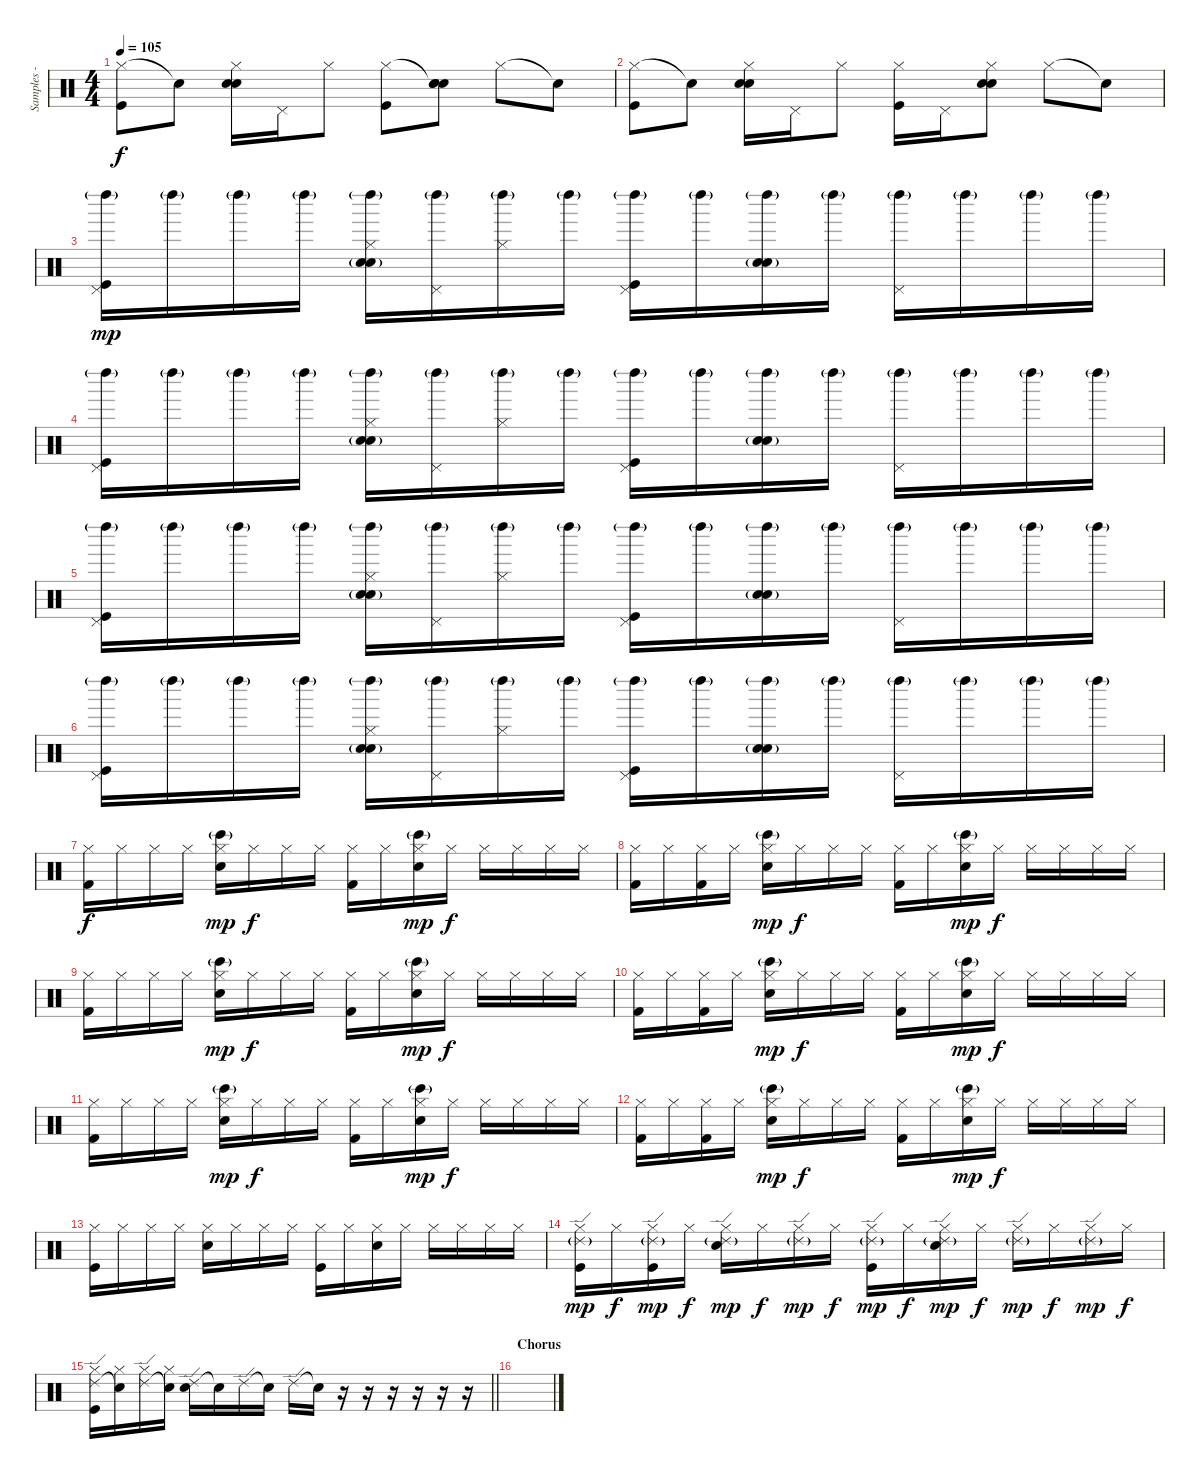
\track ("Samples - Joe Hahn" "Samples - ") {instrument percussion}
\staff {score}
\articulation defaults
\ts (4 4)
\tempo 105
\clef neutral
\ks c
("Hi-Hat (closed)" "Kick (hit)").8{dy f} "Snare (hit)"{t}.8 ("Hi-Hat (closed)" "Electric Snare (hit)" "Hand Clap (hit)").16 "Pedal Hi-Hat (hit)".16 "Hi-Hat (closed)".8 ("Hi-Hat (closed)" "Kick (hit)").8 ("Snare (hit)"{t} "Electric Snare (hit)" "Hand Clap (hit)").8 "Hi-Hat (closed)".8 "Snare (hit)"{t}.8 |
("Hi-Hat (closed)" "Kick (hit)").8 "Snare (hit)"{t}.8 ("Hi-Hat (closed)" "Electric Snare (hit)" "Hand Clap (hit)").16 "Pedal Hi-Hat (hit)".16 "Hi-Hat (closed)".8 ("Hi-Hat (closed)" "Kick (hit)").16 "Pedal Hi-Hat (hit)".16 ("Hi-Hat (closed)" "Electric Snare (hit)" "Hand Clap (hit)").8 "Hi-Hat (closed)".8 "Snare (hit)"{t}.8 |
("Left Maraca (hit)"{g} "Pedal Hi-Hat (hit)" "Kick (hit)").16{dy mp} "Left Maraca (hit)"{g}.16 "Left Maraca (hit)"{g}.16 "Left Maraca (hit)"{g}.16 ("Left Maraca (hit)"{g} "Hi-Hat (closed)" "Electric Snare (hit)" "Hand Clap (hit)"{g}).16 ("Left Maraca (hit)"{g} "Pedal Hi-Hat (hit)").16 ("Left Maraca (hit)"{g} "Hi-Hat (closed)").16 "Left Maraca (hit)"{g}.16 ("Left Maraca (hit)"{g} "Pedal Hi-Hat (hit)" "Kick (hit)").16 "Left Maraca (hit)"{g}.16 ("Left Maraca (hit)"{g} "Electric Snare (hit)" "Hand Clap (hit)"{g}).16 "Left Maraca (hit)"{g}.16 ("Left Maraca (hit)"{g} "Pedal Hi-Hat (hit)").16 "Left Maraca (hit)"{g}.16 "Left Maraca (hit)"{g}.16 "Left Maraca (hit)"{g}.16 |
("Left Maraca (hit)"{g} "Pedal Hi-Hat (hit)" "Kick (hit)").16 "Left Maraca (hit)"{g}.16 "Left Maraca (hit)"{g}.16 "Left Maraca (hit)"{g}.16 ("Left Maraca (hit)"{g} "Hi-Hat (closed)" "Electric Snare (hit)" "Hand Clap (hit)"{g}).16 ("Left Maraca (hit)"{g} "Pedal Hi-Hat (hit)").16 ("Left Maraca (hit)"{g} "Hi-Hat (closed)").16 "Left Maraca (hit)"{g}.16 ("Left Maraca (hit)"{g} "Pedal Hi-Hat (hit)" "Kick (hit)").16 "Left Maraca (hit)"{g}.16 ("Left Maraca (hit)"{g} "Electric Snare (hit)" "Hand Clap (hit)"{g}).16 "Left Maraca (hit)"{g}.16 ("Left Maraca (hit)"{g} "Pedal Hi-Hat (hit)").16 "Left Maraca (hit)"{g}.16 "Left Maraca (hit)"{g}.16 "Left Maraca (hit)"{g}.16 |
("Left Maraca (hit)"{g} "Pedal Hi-Hat (hit)" "Kick (hit)").16 "Left Maraca (hit)"{g}.16 "Left Maraca (hit)"{g}.16 "Left Maraca (hit)"{g}.16 ("Left Maraca (hit)"{g} "Hi-Hat (closed)" "Electric Snare (hit)" "Hand Clap (hit)"{g}).16 ("Left Maraca (hit)"{g} "Pedal Hi-Hat (hit)").16 ("Left Maraca (hit)"{g} "Hi-Hat (closed)").16 "Left Maraca (hit)"{g}.16 ("Left Maraca (hit)"{g} "Pedal Hi-Hat (hit)" "Kick (hit)").16 "Left Maraca (hit)"{g}.16 ("Left Maraca (hit)"{g} "Electric Snare (hit)" "Hand Clap (hit)"{g}).16 "Left Maraca (hit)"{g}.16 ("Left Maraca (hit)"{g} "Pedal Hi-Hat (hit)").16 "Left Maraca (hit)"{g}.16 "Left Maraca (hit)"{g}.16 "Left Maraca (hit)"{g}.16 |
("Left Maraca (hit)"{g} "Pedal Hi-Hat (hit)" "Kick (hit)").16 "Left Maraca (hit)"{g}.16 "Left Maraca (hit)"{g}.16 "Left Maraca (hit)"{g}.16 ("Left Maraca (hit)"{g} "Hi-Hat (closed)" "Electric Snare (hit)" "Hand Clap (hit)"{g}).16 ("Left Maraca (hit)"{g} "Pedal Hi-Hat (hit)").16 ("Left Maraca (hit)"{g} "Hi-Hat (closed)").16 "Left Maraca (hit)"{g}.16 ("Left Maraca (hit)"{g} "Pedal Hi-Hat (hit)" "Kick (hit)").16 "Left Maraca (hit)"{g}.16 ("Left Maraca (hit)"{g} "Electric Snare (hit)" "Hand Clap (hit)"{g}).16 "Left Maraca (hit)"{g}.16 ("Left Maraca (hit)"{g} "Pedal Hi-Hat (hit)").16 "Left Maraca (hit)"{g}.16 "Left Maraca (hit)"{g}.16 "Left Maraca (hit)"{g}.16 |
("Hi-Hat (closed)" "Kick (hit) 2").16{dy f} "Hi-Hat (closed)".16 "Hi-Hat (closed)".16 "Hi-Hat (closed)".16 ("Hi-Hat (closed)" "Bongo High (hit)"{g} "Electric Snare (hit)").16{dy mp} "Hi-Hat (closed)".16{dy f} "Hi-Hat (closed)".16 "Hi-Hat (closed)".16 ("Hi-Hat (closed)" "Kick (hit) 2").16 "Hi-Hat (closed)".16 ("Hi-Hat (closed)" "Bongo High (hit)"{g} "Electric Snare (hit)").16{dy mp} "Hi-Hat (closed)".16{dy f} "Hi-Hat (closed)".16 "Hi-Hat (closed)".16 "Hi-Hat (closed)".16 "Hi-Hat (closed)".16 |
("Hi-Hat (closed)" "Kick (hit) 2").16 "Hi-Hat (closed)".16 ("Hi-Hat (closed)" "Kick (hit) 2").16 "Hi-Hat (closed)".16 ("Hi-Hat (closed)" "Bongo High (hit)"{g} "Electric Snare (hit)").16{dy mp} "Hi-Hat (closed)".16{dy f} "Hi-Hat (closed)".16 "Hi-Hat (closed)".16 ("Hi-Hat (closed)" "Kick (hit) 2").16 "Hi-Hat (closed)".16 ("Hi-Hat (closed)" "Bongo High (hit)"{g} "Electric Snare (hit)").16{dy mp} "Hi-Hat (closed)".16{dy f} "Hi-Hat (closed)".16 "Hi-Hat (closed)".16 "Hi-Hat (closed)".16 "Hi-Hat (closed)".16 |
("Hi-Hat (closed)" "Kick (hit) 2").16 "Hi-Hat (closed)".16 "Hi-Hat (closed)".16 "Hi-Hat (closed)".16 ("Hi-Hat (closed)" "Bongo High (hit)"{g} "Electric Snare (hit)").16{dy mp} "Hi-Hat (closed)".16{dy f} "Hi-Hat (closed)".16 "Hi-Hat (closed)".16 ("Hi-Hat (closed)" "Kick (hit) 2").16 "Hi-Hat (closed)".16 ("Hi-Hat (closed)" "Bongo High (hit)"{g} "Electric Snare (hit)").16{dy mp} "Hi-Hat (closed)".16{dy f} "Hi-Hat (closed)".16 "Hi-Hat (closed)".16 "Hi-Hat (closed)".16 "Hi-Hat (closed)".16 |
("Hi-Hat (closed)" "Kick (hit) 2").16 "Hi-Hat (closed)".16 ("Hi-Hat (closed)" "Kick (hit) 2").16 "Hi-Hat (closed)".16 ("Hi-Hat (closed)" "Bongo High (hit)"{g} "Electric Snare (hit)").16{dy mp} "Hi-Hat (closed)".16{dy f} "Hi-Hat (closed)".16 "Hi-Hat (closed)".16 ("Hi-Hat (closed)" "Kick (hit) 2").16 "Hi-Hat (closed)".16 ("Hi-Hat (closed)" "Bongo High (hit)"{g} "Electric Snare (hit)").16{dy mp} "Hi-Hat (closed)".16{dy f} "Hi-Hat (closed)".16 "Hi-Hat (closed)".16 "Hi-Hat (closed)".16 "Hi-Hat (closed)".16 |
("Hi-Hat (closed)" "Kick (hit) 2").16 "Hi-Hat (closed)".16 "Hi-Hat (closed)".16 "Hi-Hat (closed)".16 ("Hi-Hat (closed)" "Bongo High (hit)"{g} "Electric Snare (hit)").16{dy mp} "Hi-Hat (closed)".16{dy f} "Hi-Hat (closed)".16 "Hi-Hat (closed)".16 ("Hi-Hat (closed)" "Kick (hit) 2").16 "Hi-Hat (closed)".16 ("Hi-Hat (closed)" "Bongo High (hit)"{g} "Electric Snare (hit)").16{dy mp} "Hi-Hat (closed)".16{dy f} "Hi-Hat (closed)".16 "Hi-Hat (closed)".16 "Hi-Hat (closed)".16 "Hi-Hat (closed)".16 |
("Hi-Hat (closed)" "Kick (hit) 2").16 "Hi-Hat (closed)".16 ("Hi-Hat (closed)" "Kick (hit) 2").16 "Hi-Hat (closed)".16 ("Hi-Hat (closed)" "Bongo High (hit)"{g} "Electric Snare (hit)").16{dy mp} "Hi-Hat (closed)".16{dy f} "Hi-Hat (closed)".16 "Hi-Hat (closed)".16 ("Hi-Hat (closed)" "Kick (hit) 2").16 "Hi-Hat (closed)".16 ("Hi-Hat (closed)" "Bongo High (hit)"{g} "Electric Snare (hit)").16{dy mp} "Hi-Hat (closed)".16{dy f} "Hi-Hat (closed)".16 "Hi-Hat (closed)".16 "Hi-Hat (closed)".16 "Hi-Hat (closed)".16 |
("Hi-Hat (closed)" "Kick (hit)").16 "Hi-Hat (closed)".16 "Hi-Hat (closed)".16 "Hi-Hat (closed)".16 ("Hi-Hat (closed)" "Electric Snare (hit)").16 "Hi-Hat (closed)".16 "Hi-Hat (closed)".16 "Hi-Hat (closed)".16 ("Hi-Hat (closed)" "Kick (hit)").16 "Hi-Hat (closed)".16 ("Hi-Hat (closed)" "Electric Snare (hit)").16 "Hi-Hat (closed)".16 "Hi-Hat (closed)".16 "Hi-Hat (closed)".16 "Hi-Hat (closed)".16 "Hi-Hat (closed)".16 |
("Hi-Hat (closed)" "Ride (edge) 2"{g} "Kick (hit)").16{dy mp} "Hi-Hat (closed)".16{dy f} ("Hi-Hat (closed)" "Ride (edge) 2"{g} "Kick (hit)").16{dy mp} "Hi-Hat (closed)".16{dy f} ("Hi-Hat (closed)" "Ride (edge) 2"{g} "Electric Snare (hit)").16{dy mp} "Hi-Hat (closed)".16{dy f} ("Hi-Hat (closed)" "Ride (edge) 2"{g}).16{dy mp} "Hi-Hat (closed)".16{dy f} ("Hi-Hat (closed)" "Ride (edge) 2"{g} "Kick (hit)").16{dy mp} "Hi-Hat (closed)".16{dy f} ("Hi-Hat (closed)" "Ride (edge) 2"{g} "Electric Snare (hit)").16{dy mp} "Hi-Hat (closed)".16{dy f} ("Hi-Hat (closed)" "Ride (edge) 2"{g}).16{dy mp} "Hi-Hat (closed)".16{dy f} ("Hi-Hat (closed)" "Ride (edge) 2"{g}).16{dy mp} "Hi-Hat (closed)".16{dy f} |
\barLineRight lightlight
("Hi-Hat (closed)" "Ride (edge) 2" "Kick (hit)").16 ("Hi-Hat (closed)" "Snare (hit)"{t}).16 ("Hi-Hat (closed)" "Ride (edge) 2").16 ("Hi-Hat (closed)" "Snare (hit)"{t}).16 ("Ride (edge) 2" "Electric Snare (hit)").16 "Snare (hit)"{t}.16 "Ride (edge) 2".16 "Snare (hit)"{t}.16 "Ride (edge) 2".16 "Snare (hit)"{t}.16 r.16 r.16 r.16 r.16 r.16 r.16 |
\section ("" "Chorus")
